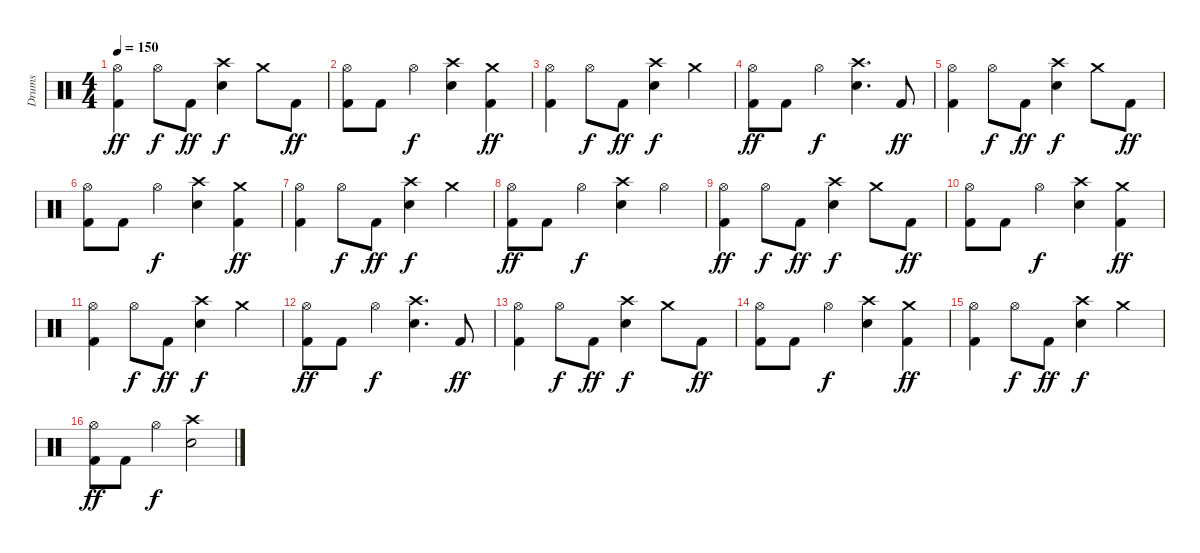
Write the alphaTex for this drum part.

\track ("Drums" "Drums") {instrument percussion}
\staff {score}
\articulation defaults
\ts (4 4)
\tempo 150
\clef neutral
\ks c
("Kick (hit) 2" "Hi-Hat (open)").4{dy ff} "Hi-Hat (open)".8{dy f} "Kick (hit) 2".8{dy ff} ("Crash high (hit)" "Snare (hit) 2").4{dy f} "Crash medium (hit)".8 "Kick (hit) 2".8{dy ff} |
("Kick (hit) 2" "Hi-Hat (open)").8 "Kick (hit) 2".8 "Hi-Hat (open)".4{dy f} ("Crash high (hit)" "Snare (hit) 2").4 ("Crash medium (hit)" "Kick (hit) 2").4{dy ff} |
("Kick (hit) 2" "Hi-Hat (open)").4 "Hi-Hat (open)".8{dy f} "Kick (hit) 2".8{dy ff} ("Crash high (hit)" "Snare (hit) 2").4{dy f} "Crash medium (hit)".4 |
("Kick (hit) 2" "Hi-Hat (open)").8{dy ff} "Kick (hit) 2".8 "Hi-Hat (open)".4{dy f} ("Crash high (hit)" "Snare (hit) 2").4{d} "Kick (hit) 2".8{dy ff} |
("Kick (hit) 2" "Hi-Hat (open)").4 "Hi-Hat (open)".8{dy f} "Kick (hit) 2".8{dy ff} ("Crash high (hit)" "Snare (hit) 2").4{dy f} "Crash medium (hit)".8 "Kick (hit) 2".8{dy ff} |
("Kick (hit) 2" "Hi-Hat (open)").8 "Kick (hit) 2".8 "Hi-Hat (open)".4{dy f} ("Crash high (hit)" "Snare (hit) 2").4 ("Crash medium (hit)" "Kick (hit) 2").4{dy ff} |
("Kick (hit) 2" "Hi-Hat (open)").4 "Hi-Hat (open)".8{dy f} "Kick (hit) 2".8{dy ff} ("Crash high (hit)" "Snare (hit) 2").4{dy f} "Crash medium (hit)".4 |
("Kick (hit) 2" "Hi-Hat (open)").8{dy ff} "Kick (hit) 2".8 "Hi-Hat (open)".4{dy f} ("Crash high (hit)" "Snare (hit) 2").4 "Hi-Hat (open)".4 |
("Kick (hit) 2" "Hi-Hat (open)").4{dy ff} "Hi-Hat (open)".8{dy f} "Kick (hit) 2".8{dy ff} ("Crash high (hit)" "Snare (hit) 2").4{dy f} "Crash medium (hit)".8 "Kick (hit) 2".8{dy ff} |
("Kick (hit) 2" "Hi-Hat (open)").8 "Kick (hit) 2".8 "Hi-Hat (open)".4{dy f} ("Crash high (hit)" "Snare (hit) 2").4 ("Crash medium (hit)" "Kick (hit) 2").4{dy ff} |
("Kick (hit) 2" "Hi-Hat (open)").4 "Hi-Hat (open)".8{dy f} "Kick (hit) 2".8{dy ff} ("Crash high (hit)" "Snare (hit) 2").4{dy f} "Crash medium (hit)".4 |
("Kick (hit) 2" "Hi-Hat (open)").8{dy ff} "Kick (hit) 2".8 "Hi-Hat (open)".4{dy f} ("Crash high (hit)" "Snare (hit) 2").4{d} "Kick (hit) 2".8{dy ff} |
("Kick (hit) 2" "Hi-Hat (open)").4 "Hi-Hat (open)".8{dy f} "Kick (hit) 2".8{dy ff} ("Crash high (hit)" "Snare (hit) 2").4{dy f} "Crash medium (hit)".8 "Kick (hit) 2".8{dy ff} |
("Kick (hit) 2" "Hi-Hat (open)").8 "Kick (hit) 2".8 "Hi-Hat (open)".4{dy f} ("Crash high (hit)" "Snare (hit) 2").4 ("Crash medium (hit)" "Kick (hit) 2").4{dy ff} |
("Kick (hit) 2" "Hi-Hat (open)").4 "Hi-Hat (open)".8{dy f} "Kick (hit) 2".8{dy ff} ("Crash high (hit)" "Snare (hit) 2").4{dy f} "Crash medium (hit)".4 |
("Kick (hit) 2" "Hi-Hat (open)").8{dy ff} "Kick (hit) 2".8 "Hi-Hat (open)".4{dy f} ("Crash high (hit)" "Snare (hit) 2").2
